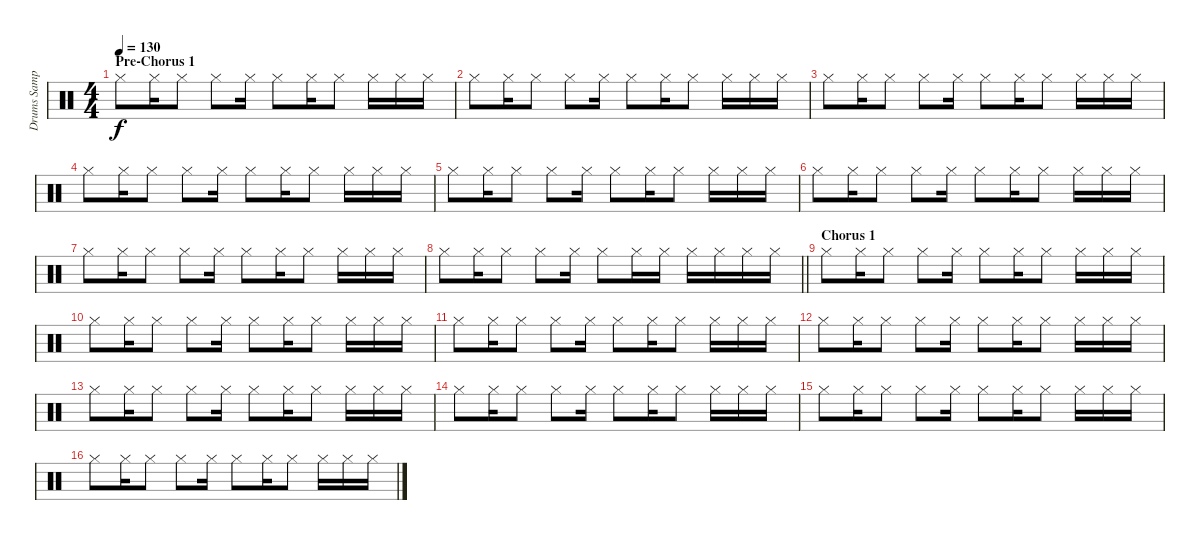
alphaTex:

\track ("Drums Sample" "Drums Samp") {instrument percussion}
\staff {score}
\articulation defaults
\ts (4 4)
\section ("" "Pre-Chorus 1")
\tempo 130
\clef neutral
\ks c "Hi-Hat (closed)".8{dy f} "Hi-Hat (closed)".16 "Hi-Hat (closed)".8 "Hi-Hat (closed)".8 "Hi-Hat (closed)".16 "Hi-Hat (closed)".8 "Hi-Hat (closed)".16 "Hi-Hat (closed)".8 "Hi-Hat (closed)".16 "Hi-Hat (closed)".16 "Hi-Hat (closed)".16
|
"Hi-Hat (closed)".8 "Hi-Hat (closed)".16 "Hi-Hat (closed)".8 "Hi-Hat (closed)".8 "Hi-Hat (closed)".16 "Hi-Hat (closed)".8 "Hi-Hat (closed)".16 "Hi-Hat (closed)".8 "Hi-Hat (closed)".16 "Hi-Hat (closed)".16 "Hi-Hat (closed)".16 |
"Hi-Hat (closed)".8 "Hi-Hat (closed)".16 "Hi-Hat (closed)".8 "Hi-Hat (closed)".8 "Hi-Hat (closed)".16 "Hi-Hat (closed)".8 "Hi-Hat (closed)".16 "Hi-Hat (closed)".8 "Hi-Hat (closed)".16 "Hi-Hat (closed)".16 "Hi-Hat (closed)".16 |
"Hi-Hat (closed)".8 "Hi-Hat (closed)".16 "Hi-Hat (closed)".8 "Hi-Hat (closed)".8 "Hi-Hat (closed)".16 "Hi-Hat (closed)".8 "Hi-Hat (closed)".16 "Hi-Hat (closed)".8 "Hi-Hat (closed)".16 "Hi-Hat (closed)".16 "Hi-Hat (closed)".16 |
"Hi-Hat (closed)".8 "Hi-Hat (closed)".16 "Hi-Hat (closed)".8 "Hi-Hat (closed)".8 "Hi-Hat (closed)".16 "Hi-Hat (closed)".8 "Hi-Hat (closed)".16 "Hi-Hat (closed)".8 "Hi-Hat (closed)".16 "Hi-Hat (closed)".16 "Hi-Hat (closed)".16 |
"Hi-Hat (closed)".8 "Hi-Hat (closed)".16 "Hi-Hat (closed)".8 "Hi-Hat (closed)".8 "Hi-Hat (closed)".16 "Hi-Hat (closed)".8 "Hi-Hat (closed)".16 "Hi-Hat (closed)".8 "Hi-Hat (closed)".16 "Hi-Hat (closed)".16 "Hi-Hat (closed)".16 |
"Hi-Hat (closed)".8 "Hi-Hat (closed)".16 "Hi-Hat (closed)".8 "Hi-Hat (closed)".8 "Hi-Hat (closed)".16 "Hi-Hat (closed)".8 "Hi-Hat (closed)".16 "Hi-Hat (closed)".8 "Hi-Hat (closed)".16 "Hi-Hat (closed)".16 "Hi-Hat (closed)".16 |
\barLineRight lightlight "Hi-Hat (closed)".8 "Hi-Hat (closed)".16 "Hi-Hat (closed)".8 "Hi-Hat (closed)".8 "Hi-Hat (closed)".16 "Hi-Hat (closed)".8 "Hi-Hat (closed)".16 "Hi-Hat (closed)".16 "Hi-Hat (closed)".16 "Hi-Hat (closed)".16 "Hi-Hat (closed)".16 "Hi-Hat (closed)".16
|
\section ("" "Chorus 1")
"Hi-Hat (closed)".8 "Hi-Hat (closed)".16 "Hi-Hat (closed)".8 "Hi-Hat (closed)".8 "Hi-Hat (closed)".16 "Hi-Hat (closed)".8 "Hi-Hat (closed)".16 "Hi-Hat (closed)".8 "Hi-Hat (closed)".16 "Hi-Hat (closed)".16 "Hi-Hat (closed)".16 |
"Hi-Hat (closed)".8 "Hi-Hat (closed)".16 "Hi-Hat (closed)".8 "Hi-Hat (closed)".8 "Hi-Hat (closed)".16 "Hi-Hat (closed)".8 "Hi-Hat (closed)".16 "Hi-Hat (closed)".8 "Hi-Hat (closed)".16 "Hi-Hat (closed)".16 "Hi-Hat (closed)".16 |
"Hi-Hat (closed)".8 "Hi-Hat (closed)".16 "Hi-Hat (closed)".8 "Hi-Hat (closed)".8 "Hi-Hat (closed)".16 "Hi-Hat (closed)".8 "Hi-Hat (closed)".16 "Hi-Hat (closed)".8 "Hi-Hat (closed)".16 "Hi-Hat (closed)".16 "Hi-Hat (closed)".16 |
"Hi-Hat (closed)".8 "Hi-Hat (closed)".16 "Hi-Hat (closed)".8 "Hi-Hat (closed)".8 "Hi-Hat (closed)".16 "Hi-Hat (closed)".8 "Hi-Hat (closed)".16 "Hi-Hat (closed)".8 "Hi-Hat (closed)".16 "Hi-Hat (closed)".16 "Hi-Hat (closed)".16 |
"Hi-Hat (closed)".8 "Hi-Hat (closed)".16 "Hi-Hat (closed)".8 "Hi-Hat (closed)".8 "Hi-Hat (closed)".16 "Hi-Hat (closed)".8 "Hi-Hat (closed)".16 "Hi-Hat (closed)".8 "Hi-Hat (closed)".16 "Hi-Hat (closed)".16 "Hi-Hat (closed)".16 |
"Hi-Hat (closed)".8 "Hi-Hat (closed)".16 "Hi-Hat (closed)".8 "Hi-Hat (closed)".8 "Hi-Hat (closed)".16 "Hi-Hat (closed)".8 "Hi-Hat (closed)".16 "Hi-Hat (closed)".8 "Hi-Hat (closed)".16 "Hi-Hat (closed)".16 "Hi-Hat (closed)".16 |
"Hi-Hat (closed)".8 "Hi-Hat (closed)".16 "Hi-Hat (closed)".8 "Hi-Hat (closed)".8 "Hi-Hat (closed)".16 "Hi-Hat (closed)".8 "Hi-Hat (closed)".16 "Hi-Hat (closed)".8 "Hi-Hat (closed)".16 "Hi-Hat (closed)".16 "Hi-Hat (closed)".16 |
"Hi-Hat (closed)".8 "Hi-Hat (closed)".16 "Hi-Hat (closed)".8 "Hi-Hat (closed)".8 "Hi-Hat (closed)".16 "Hi-Hat (closed)".8 "Hi-Hat (closed)".16 "Hi-Hat (closed)".8 "Hi-Hat (closed)".16 "Hi-Hat (closed)".16 "Hi-Hat (closed)".16
